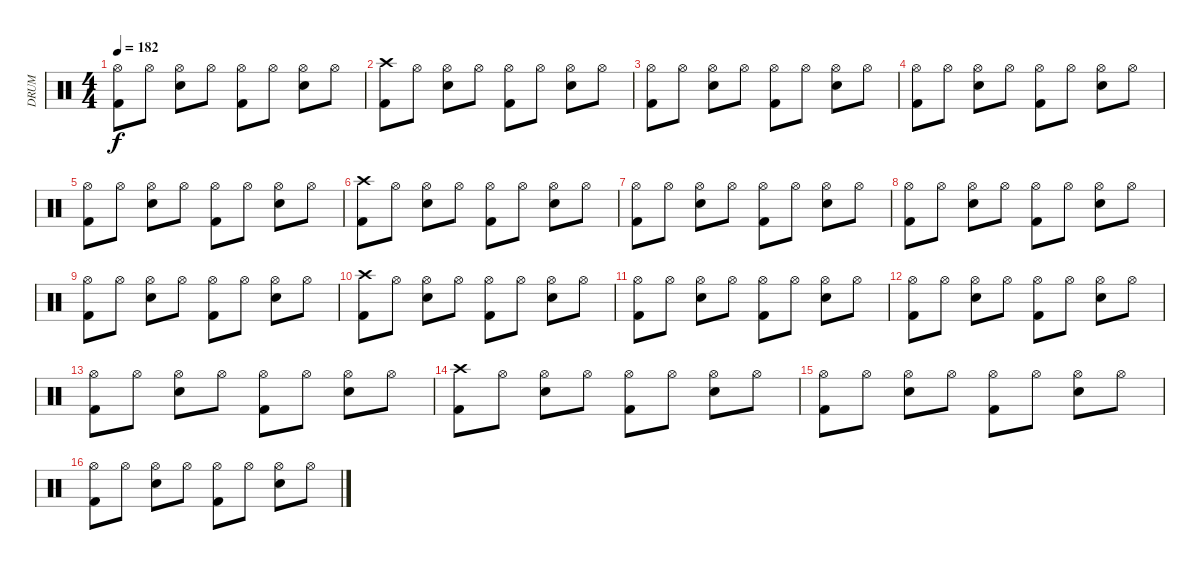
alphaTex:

\track ("DRUM" "DRUM") {instrument percussion}
\staff {score}
\articulation defaults
\ts (4 4)
\tempo 182
\clef neutral
\ks c
("Hi-Hat (open)" "Kick (hit) 2").8{dy f} "Hi-Hat (open)".8{volume 9} ("Hi-Hat (open)" "Snare (hit) 2").8 "Hi-Hat (open)".8{volume 9} ("Hi-Hat (open)" "Kick (hit) 2").8 "Hi-Hat (open)".8{volume 9} ("Hi-Hat (open)" "Snare (hit) 2").8 "Hi-Hat (open)".8{volume 9} |
("Crash high (hit)" "Kick (hit) 2").8 "Hi-Hat (open)".8{volume 9} ("Hi-Hat (open)" "Snare (hit) 2").8 "Hi-Hat (open)".8{volume 9} ("Hi-Hat (open)" "Kick (hit) 2").8 "Hi-Hat (open)".8{volume 9} ("Hi-Hat (open)" "Snare (hit) 2").8 "Hi-Hat (open)".8{volume 9} |
("Hi-Hat (open)" "Kick (hit) 2").8 "Hi-Hat (open)".8{volume 9} ("Hi-Hat (open)" "Snare (hit) 2").8 "Hi-Hat (open)".8{volume 9} ("Hi-Hat (open)" "Kick (hit) 2").8 "Hi-Hat (open)".8{volume 9} ("Hi-Hat (open)" "Snare (hit) 2").8 "Hi-Hat (open)".8{volume 9} |
("Hi-Hat (open)" "Kick (hit) 2").8 "Hi-Hat (open)".8{volume 9} ("Hi-Hat (open)" "Snare (hit) 2").8 "Hi-Hat (open)".8{volume 9} ("Hi-Hat (open)" "Kick (hit) 2").8 "Hi-Hat (open)".8{volume 9} ("Hi-Hat (open)" "Snare (hit) 2").8 "Hi-Hat (open)".8{volume 9} |
("Hi-Hat (open)" "Kick (hit) 2").8 "Hi-Hat (open)".8{volume 9} ("Hi-Hat (open)" "Snare (hit) 2").8 "Hi-Hat (open)".8{volume 9} ("Hi-Hat (open)" "Kick (hit) 2").8 "Hi-Hat (open)".8{volume 9} ("Hi-Hat (open)" "Snare (hit) 2").8 "Hi-Hat (open)".8{volume 9} |
("Crash high (hit)" "Kick (hit) 2").8 "Hi-Hat (open)".8{volume 9} ("Hi-Hat (open)" "Snare (hit) 2").8 "Hi-Hat (open)".8{volume 9} ("Hi-Hat (open)" "Kick (hit) 2").8 "Hi-Hat (open)".8{volume 9} ("Hi-Hat (open)" "Snare (hit) 2").8 "Hi-Hat (open)".8{volume 9} |
("Hi-Hat (open)" "Kick (hit) 2").8 "Hi-Hat (open)".8{volume 9} ("Hi-Hat (open)" "Snare (hit) 2").8 "Hi-Hat (open)".8{volume 9} ("Hi-Hat (open)" "Kick (hit) 2").8 "Hi-Hat (open)".8{volume 9} ("Hi-Hat (open)" "Snare (hit) 2").8 "Hi-Hat (open)".8{volume 9} |
("Hi-Hat (open)" "Kick (hit) 2").8 "Hi-Hat (open)".8{volume 9} ("Hi-Hat (open)" "Snare (hit) 2").8 "Hi-Hat (open)".8{volume 9} ("Hi-Hat (open)" "Kick (hit) 2").8 "Hi-Hat (open)".8{volume 9} ("Hi-Hat (open)" "Snare (hit) 2").8 "Hi-Hat (open)".8{volume 9} |
("Hi-Hat (open)" "Kick (hit) 2").8 "Hi-Hat (open)".8{volume 9} ("Hi-Hat (open)" "Snare (hit) 2").8 "Hi-Hat (open)".8{volume 9} ("Hi-Hat (open)" "Kick (hit) 2").8 "Hi-Hat (open)".8{volume 9} ("Hi-Hat (open)" "Snare (hit) 2").8 "Hi-Hat (open)".8{volume 9} |
("Crash high (hit)" "Kick (hit) 2").8 "Hi-Hat (open)".8{volume 9} ("Hi-Hat (open)" "Snare (hit) 2").8 "Hi-Hat (open)".8{volume 9} ("Hi-Hat (open)" "Kick (hit) 2").8 "Hi-Hat (open)".8{volume 9} ("Hi-Hat (open)" "Snare (hit) 2").8 "Hi-Hat (open)".8{volume 9} |
("Hi-Hat (open)" "Kick (hit) 2").8 "Hi-Hat (open)".8{volume 9} ("Hi-Hat (open)" "Snare (hit) 2").8 "Hi-Hat (open)".8{volume 9} ("Hi-Hat (open)" "Kick (hit) 2").8 "Hi-Hat (open)".8{volume 9} ("Hi-Hat (open)" "Snare (hit) 2").8 "Hi-Hat (open)".8{volume 9} |
("Hi-Hat (open)" "Kick (hit) 2").8 "Hi-Hat (open)".8{volume 9} ("Hi-Hat (open)" "Snare (hit) 2").8 "Hi-Hat (open)".8{volume 9} ("Hi-Hat (open)" "Kick (hit) 2").8 "Hi-Hat (open)".8{volume 9} ("Hi-Hat (open)" "Snare (hit) 2").8 "Hi-Hat (open)".8{volume 9} |
("Hi-Hat (open)" "Kick (hit) 2").8 "Hi-Hat (open)".8{volume 9} ("Hi-Hat (open)" "Snare (hit) 2").8 "Hi-Hat (open)".8{volume 9} ("Hi-Hat (open)" "Kick (hit) 2").8 "Hi-Hat (open)".8{volume 9} ("Hi-Hat (open)" "Snare (hit) 2").8 "Hi-Hat (open)".8{volume 9} |
("Crash high (hit)" "Kick (hit) 2").8 "Hi-Hat (open)".8{volume 9} ("Hi-Hat (open)" "Snare (hit) 2").8 "Hi-Hat (open)".8{volume 9} ("Hi-Hat (open)" "Kick (hit) 2").8 "Hi-Hat (open)".8{volume 9} ("Hi-Hat (open)" "Snare (hit) 2").8 "Hi-Hat (open)".8{volume 9} |
("Hi-Hat (open)" "Kick (hit) 2").8 "Hi-Hat (open)".8{volume 9} ("Hi-Hat (open)" "Snare (hit) 2").8 "Hi-Hat (open)".8{volume 9} ("Hi-Hat (open)" "Kick (hit) 2").8 "Hi-Hat (open)".8{volume 9} ("Hi-Hat (open)" "Snare (hit) 2").8 "Hi-Hat (open)".8{volume 9} |
("Hi-Hat (open)" "Kick (hit) 2").8 "Hi-Hat (open)".8{volume 9} ("Hi-Hat (open)" "Snare (hit) 2").8 "Hi-Hat (open)".8{volume 9} ("Hi-Hat (open)" "Kick (hit) 2").8 "Hi-Hat (open)".8{volume 9} ("Hi-Hat (open)" "Snare (hit) 2").8 "Hi-Hat (open)".8{volume 9}
